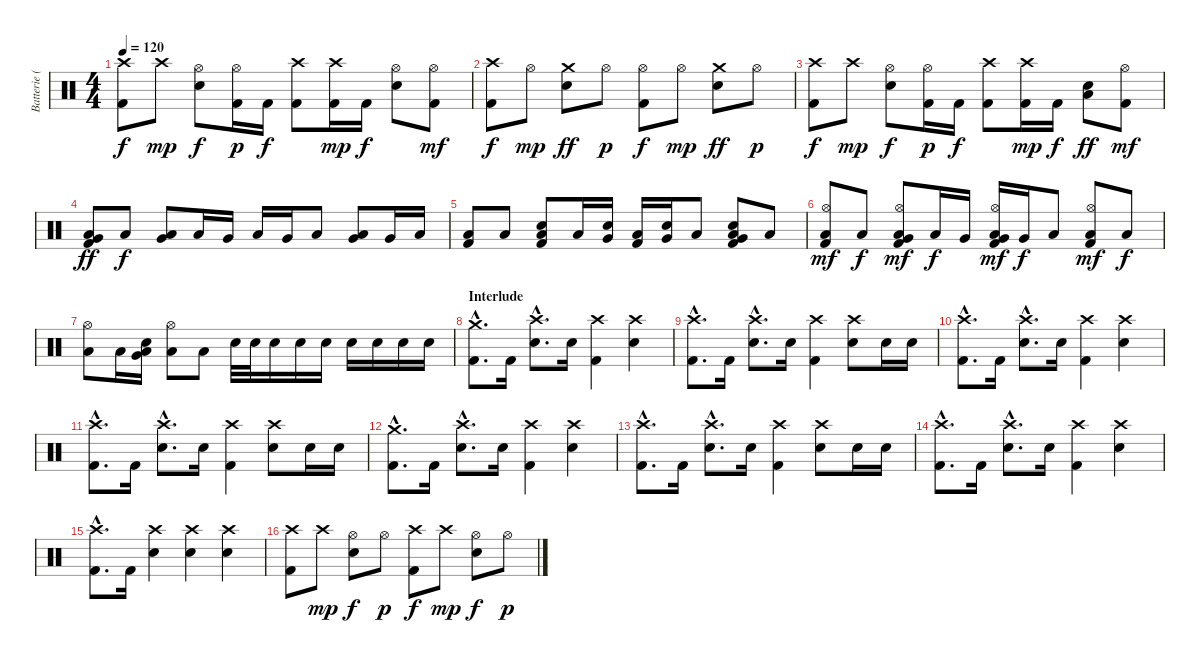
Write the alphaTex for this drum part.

\track ("Batterie (Racci \"Sketchy\" Shay)" "Batterie (") {instrument percussion}
\staff {score}
\articulation defaults
\ts (4 4)
\tempo 120
\clef neutral
\ks c
("Crash high (hit)" "Kick (hit) 2").8{dy f} "Crash high (hit)".8{dy mp} ("Hi-Hat (open)" "Electric Snare (hit)").8{dy f} ("Hi-Hat (open)" "Kick (hit) 2").16{dy p} "Kick (hit) 2".16{dy f} ("Crash high (hit)" "Kick (hit) 2").8 ("Crash high (hit)" "Kick (hit) 2").16{dy mp} "Kick (hit) 2".16{dy f} ("Hi-Hat (open)" "Electric Snare (hit)").8 ("Hi-Hat (open)" "Kick (hit) 2").8{dy mf} |
("Crash high (hit)" "Kick (hit) 2").8{dy f} "Hi-Hat (open)".8{dy mp} ("Crash medium (hit)" "Electric Snare (hit)").8{dy ff} "Hi-Hat (open)".8{dy p} ("Hi-Hat (open)" "Kick (hit) 2").8{dy f} "Hi-Hat (open)".8{dy mp} ("Crash medium (hit)" "Electric Snare (hit)").8{dy ff} "Hi-Hat (open)".8{dy p} |
("Crash high (hit)" "Kick (hit) 2").8{dy f} "Crash high (hit)".8{dy mp} ("Hi-Hat (open)" "Electric Snare (hit)").8{dy f} ("Hi-Hat (open)" "Kick (hit) 2").16{dy p} "Kick (hit) 2".16{dy f} ("Crash high (hit)" "Kick (hit) 2").8 ("Crash high (hit)" "Kick (hit) 2").16{dy mp} "Kick (hit) 2".16{dy f} ("Electric Snare (hit)" "Low Floor Tom (hit)").8{dy ff} ("Hi-Hat (open)" "Kick (hit) 2").8{dy mf} |
("Very Low Tom (hit)" "Low Floor Tom (hit)" "Kick (hit) 2").8{dy ff} "Low Floor Tom (hit)".8{dy f} ("Very Low Tom (hit)" "Low Floor Tom (hit)").8 "Low Floor Tom (hit)".16 "Very Low Tom (hit)".16 "Low Floor Tom (hit)".16 "Very Low Tom (hit)".16 "Low Floor Tom (hit)".8 ("Very Low Tom (hit)" "Low Floor Tom (hit)").8 "Very Low Tom (hit)".16 "Low Floor Tom (hit)".16 |
("Low Floor Tom (hit)" "Kick (hit) 2").8 "Low Floor Tom (hit)".8 ("Hand Clap (hit)" "Low Floor Tom (hit)" "Kick (hit) 2").8 "Low Floor Tom (hit)".16 ("Hand Clap (hit)" "Very Low Tom (hit)").16 ("Low Floor Tom (hit)" "Kick (hit) 2").16 ("Hand Clap (hit)" "Very Low Tom (hit)").16 "Low Floor Tom (hit)".8 ("Hand Clap (hit)" "Very Low Tom (hit)" "Low Floor Tom (hit)" "Kick (hit) 2").8 "Low Floor Tom (hit)".8 |
("Hi-Hat (open)" "Low Floor Tom (hit)" "Kick (hit) 2").8{dy mf} "Low Floor Tom (hit)".8{dy f} ("Hi-Hat (open)" "Very Low Tom (hit)" "Low Floor Tom (hit)" "Kick (hit) 2").8{dy mf} "Low Floor Tom (hit)".16{dy f} "Very Low Tom (hit)".16 ("Hi-Hat (open)" "Very Low Tom (hit)" "Low Floor Tom (hit)" "Kick (hit) 2").16{dy mf} "Very Low Tom (hit)".16{dy f} "Low Floor Tom (hit)".8 ("Hi-Hat (open)" "Low Floor Tom (hit)" "Kick (hit) 2").8{dy mf} "Low Floor Tom (hit)".8{dy f} |
("Hi-Hat (open)" "Low Floor Tom (hit)").8 "Low Floor Tom (hit)".16 ("Hand Clap (hit)" "Very Low Tom (hit)" "Low Floor Tom (hit)").16 ("Hi-Hat (open)" "Low Floor Tom (hit)").8 "Low Floor Tom (hit)".8 "Electric Snare (hit)".32 "Electric Snare (hit)".32 "Electric Snare (hit)".16 "Electric Snare (hit)".16 "Electric Snare (hit)".16 "Electric Snare (hit)".16 "Electric Snare (hit)".16 "Electric Snare (hit)".16 "Electric Snare (hit)".16 |
\section ("" "Interlude")
("Crash medium (hit)"{hac} "Kick (hit) 2"{hac}).8{d} "Kick (hit) 2".16 ("Crash high (hit)"{hac} "Electric Snare (hit)"{hac}).8{d} "Electric Snare (hit)".16 ("Crash high (hit)" "Kick (hit) 2").4 ("Crash high (hit)" "Electric Snare (hit)").4 |
("Crash high (hit)"{hac} "Kick (hit) 2"{hac}).8{d} "Kick (hit) 2".16 ("Crash high (hit)"{hac} "Electric Snare (hit)"{hac}).8{d} "Electric Snare (hit)".16 ("Crash high (hit)" "Kick (hit) 2").4 ("Crash high (hit)" "Electric Snare (hit)").8 "Electric Snare (hit)".16 "Electric Snare (hit)".16 |
("Crash high (hit)"{hac} "Kick (hit) 2"{hac}).8{d} "Kick (hit) 2".16 ("Crash high (hit)"{hac} "Electric Snare (hit)"{hac}).8{d} "Electric Snare (hit)".16 ("Crash high (hit)" "Kick (hit) 2").4 ("Crash high (hit)" "Electric Snare (hit)").4 |
("Crash high (hit)"{hac} "Kick (hit) 2"{hac}).8{d} "Kick (hit) 2".16 ("Crash high (hit)"{hac} "Electric Snare (hit)"{hac}).8{d} "Electric Snare (hit)".16 ("Crash high (hit)" "Kick (hit) 2").4 ("Crash high (hit)" "Electric Snare (hit)").8 "Electric Snare (hit)".16 "Electric Snare (hit)".16 |
("Crash medium (hit)"{hac} "Kick (hit) 2"{hac}).8{d} "Kick (hit) 2".16 ("Crash high (hit)"{hac} "Electric Snare (hit)"{hac}).8{d} "Electric Snare (hit)".16 ("Crash high (hit)" "Kick (hit) 2").4 ("Crash high (hit)" "Electric Snare (hit)").4 |
("Crash high (hit)"{hac} "Kick (hit) 2"{hac}).8{d} "Kick (hit) 2".16 ("Crash high (hit)"{hac} "Electric Snare (hit)"{hac}).8{d} "Electric Snare (hit)".16 ("Crash high (hit)" "Kick (hit) 2").4 ("Crash high (hit)" "Electric Snare (hit)").8 "Electric Snare (hit)".16 "Electric Snare (hit)".16 |
("Crash high (hit)"{hac} "Kick (hit) 2"{hac}).8{d} "Kick (hit) 2".16 ("Crash high (hit)"{hac} "Electric Snare (hit)"{hac}).8{d} "Electric Snare (hit)".16 ("Crash high (hit)" "Kick (hit) 2").4 ("Crash high (hit)" "Electric Snare (hit)").4 |
("Crash high (hit)"{hac} "Kick (hit) 2"{hac}).8{d} "Kick (hit) 2".16 ("Crash high (hit)" "Electric Snare (hit)").4 ("Crash high (hit)" "Electric Snare (hit)").4 ("Crash high (hit)" "Electric Snare (hit)").4 |
("Crash high (hit)" "Kick (hit) 2").8 "Crash high (hit)".8{dy mp} ("Hi-Hat (open)" "Electric Snare (hit)").8{dy f} "Hi-Hat (open)".8{dy p} ("Crash high (hit)" "Kick (hit) 2").8{dy f} "Crash high (hit)".8{dy mp} ("Hi-Hat (open)" "Electric Snare (hit)").8{dy f} "Hi-Hat (open)".8{dy p}
